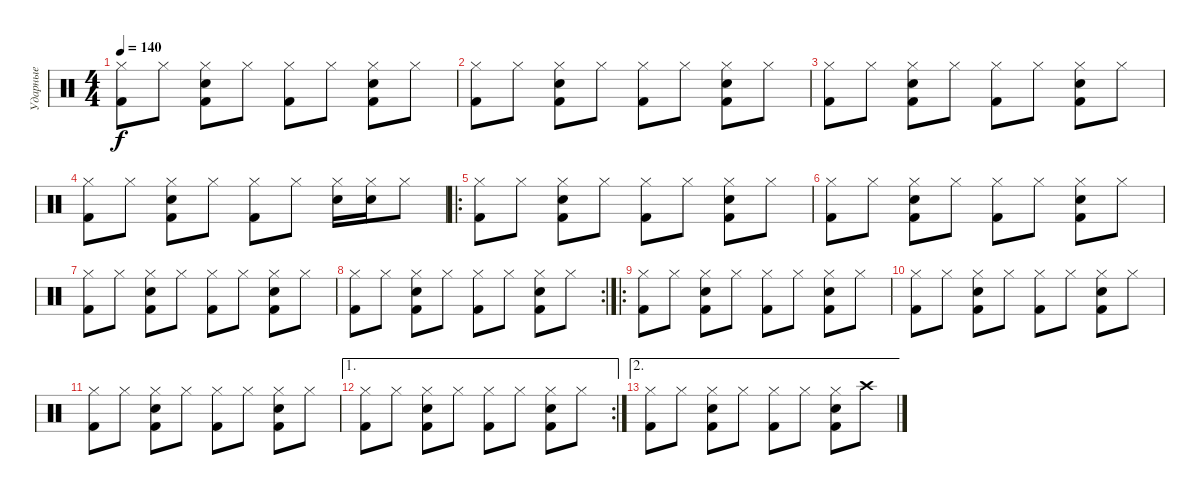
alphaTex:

\track ("Ударные" "Ударные") {instrument percussion}
\staff {score}
\articulation defaults
\ts (4 4)
\tempo 140
\clef neutral
\ks c
("Hi-Hat (closed)" "Kick (hit) 2").8{dy f} "Hi-Hat (closed)".8 ("Hi-Hat (closed)" "Kick (hit) 2" "Snare (hit) 2").8 "Hi-Hat (closed)".8 ("Hi-Hat (closed)" "Kick (hit) 2").8 "Hi-Hat (closed)".8 ("Hi-Hat (closed)" "Kick (hit) 2" "Snare (hit) 2").8 "Hi-Hat (closed)".8 |
("Hi-Hat (closed)" "Kick (hit) 2").8 "Hi-Hat (closed)".8 ("Hi-Hat (closed)" "Kick (hit) 2" "Snare (hit) 2").8 "Hi-Hat (closed)".8 ("Hi-Hat (closed)" "Kick (hit) 2").8 "Hi-Hat (closed)".8 ("Hi-Hat (closed)" "Kick (hit) 2" "Snare (hit) 2").8 "Hi-Hat (closed)".8 |
("Hi-Hat (closed)" "Kick (hit) 2").8 "Hi-Hat (closed)".8 ("Hi-Hat (closed)" "Kick (hit) 2" "Snare (hit) 2").8 "Hi-Hat (closed)".8 ("Hi-Hat (closed)" "Kick (hit) 2").8 "Hi-Hat (closed)".8 ("Hi-Hat (closed)" "Kick (hit) 2" "Snare (hit) 2").8 "Hi-Hat (closed)".8 |
("Hi-Hat (closed)" "Kick (hit) 2").8 "Hi-Hat (closed)".8 ("Hi-Hat (closed)" "Kick (hit) 2" "Snare (hit) 2").8 "Hi-Hat (closed)".8 ("Hi-Hat (closed)" "Kick (hit) 2").8 "Hi-Hat (closed)".8 ("Hi-Hat (closed)" "Snare (hit) 2").16 ("Hi-Hat (closed)" "Snare (hit) 2").16 "Hi-Hat (closed)".8 |
\ro
("Hi-Hat (closed)" "Kick (hit) 2").8 "Hi-Hat (closed)".8 ("Hi-Hat (closed)" "Kick (hit) 2" "Snare (hit) 2").8 "Hi-Hat (closed)".8 ("Hi-Hat (closed)" "Kick (hit) 2").8 "Hi-Hat (closed)".8 ("Hi-Hat (closed)" "Kick (hit) 2" "Snare (hit) 2").8 "Hi-Hat (closed)".8 |
("Hi-Hat (closed)" "Kick (hit) 2").8 "Hi-Hat (closed)".8 ("Hi-Hat (closed)" "Kick (hit) 2" "Snare (hit) 2").8 "Hi-Hat (closed)".8 ("Hi-Hat (closed)" "Kick (hit) 2").8 "Hi-Hat (closed)".8 ("Hi-Hat (closed)" "Kick (hit) 2" "Snare (hit) 2").8 "Hi-Hat (closed)".8 |
("Hi-Hat (closed)" "Kick (hit) 2").8 "Hi-Hat (closed)".8 ("Hi-Hat (closed)" "Kick (hit) 2" "Snare (hit) 2").8 "Hi-Hat (closed)".8 ("Hi-Hat (closed)" "Kick (hit) 2").8 "Hi-Hat (closed)".8 ("Hi-Hat (closed)" "Kick (hit) 2" "Snare (hit) 2").8 "Hi-Hat (closed)".8 |
\rc 2
("Hi-Hat (closed)" "Kick (hit) 2").8 "Hi-Hat (closed)".8 ("Hi-Hat (closed)" "Kick (hit) 2" "Snare (hit) 2").8 "Hi-Hat (closed)".8 ("Hi-Hat (closed)" "Kick (hit) 2").8 "Hi-Hat (closed)".8 ("Hi-Hat (closed)" "Kick (hit) 2" "Snare (hit) 2").8 "Hi-Hat (closed)".8 |
\ro
("Hi-Hat (closed)" "Kick (hit) 2").8 "Hi-Hat (closed)".8 ("Hi-Hat (closed)" "Kick (hit) 2" "Snare (hit) 2").8 "Hi-Hat (closed)".8 ("Hi-Hat (closed)" "Kick (hit) 2").8 "Hi-Hat (closed)".8 ("Hi-Hat (closed)" "Kick (hit) 2" "Snare (hit) 2").8 "Hi-Hat (closed)".8 |
("Hi-Hat (closed)" "Kick (hit) 2").8 "Hi-Hat (closed)".8 ("Hi-Hat (closed)" "Kick (hit) 2" "Snare (hit) 2").8 "Hi-Hat (closed)".8 ("Hi-Hat (closed)" "Kick (hit) 2").8 "Hi-Hat (closed)".8 ("Hi-Hat (closed)" "Kick (hit) 2" "Snare (hit) 2").8 "Hi-Hat (closed)".8 |
("Hi-Hat (closed)" "Kick (hit) 2").8 "Hi-Hat (closed)".8 ("Hi-Hat (closed)" "Kick (hit) 2" "Snare (hit) 2").8 "Hi-Hat (closed)".8 ("Hi-Hat (closed)" "Kick (hit) 2").8 "Hi-Hat (closed)".8 ("Hi-Hat (closed)" "Kick (hit) 2" "Snare (hit) 2").8 "Hi-Hat (closed)".8 |
\ae 1
\rc 2
("Hi-Hat (closed)" "Kick (hit) 2").8 "Hi-Hat (closed)".8 ("Hi-Hat (closed)" "Kick (hit) 2" "Snare (hit) 2").8 "Hi-Hat (closed)".8 ("Hi-Hat (closed)" "Kick (hit) 2").8 "Hi-Hat (closed)".8 ("Hi-Hat (closed)" "Kick (hit) 2" "Snare (hit) 2").8 "Hi-Hat (closed)".8 |
\ae 2
("Hi-Hat (closed)" "Kick (hit) 2").8 "Hi-Hat (closed)".8 ("Hi-Hat (closed)" "Kick (hit) 2" "Snare (hit) 2").8 "Hi-Hat (closed)".8 ("Hi-Hat (closed)" "Kick (hit) 2").8 "Hi-Hat (closed)".8 ("Hi-Hat (closed)" "Kick (hit) 2" "Snare (hit) 2").8 "Crash high (hit)".8
